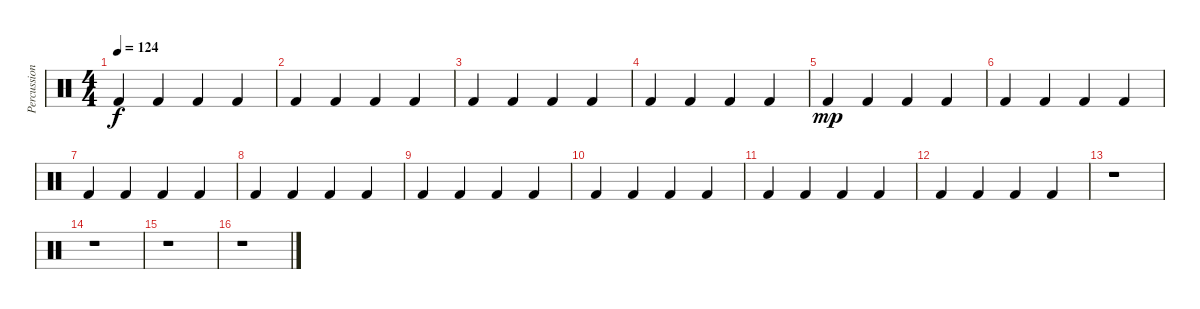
\track ("Percussion" "Percussion") {instrument percussion}
\staff {score}
\articulation defaults
\ts (4 4)
\tempo 124
\clef neutral
\ks c "Kick (hit) 2".4{dy f} "Kick (hit) 2".4 "Kick (hit) 2".4 "Kick (hit) 2".4
|
"Kick (hit) 2".4 "Kick (hit) 2".4 "Kick (hit) 2".4 "Kick (hit) 2".4 |
"Kick (hit) 2".4 "Kick (hit) 2".4 "Kick (hit) 2".4 "Kick (hit) 2".4 |
"Kick (hit) 2".4 "Kick (hit) 2".4 "Kick (hit) 2".4 "Kick (hit) 2".4 |
"Kick (hit) 2".4{dy mp} "Kick (hit) 2".4 "Kick (hit) 2".4 "Kick (hit) 2".4 |
"Kick (hit) 2".4 "Kick (hit) 2".4 "Kick (hit) 2".4 "Kick (hit) 2".4 |
"Kick (hit) 2".4 "Kick (hit) 2".4 "Kick (hit) 2".4 "Kick (hit) 2".4 |
"Kick (hit) 2".4 "Kick (hit) 2".4 "Kick (hit) 2".4 "Kick (hit) 2".4 |
"Kick (hit) 2".4 "Kick (hit) 2".4 "Kick (hit) 2".4 "Kick (hit) 2".4 |
"Kick (hit) 2".4 "Kick (hit) 2".4 "Kick (hit) 2".4 "Kick (hit) 2".4 |
"Kick (hit) 2".4 "Kick (hit) 2".4 "Kick (hit) 2".4 "Kick (hit) 2".4 |
"Kick (hit) 2".4 "Kick (hit) 2".4 "Kick (hit) 2".4 "Kick (hit) 2".4 |
r.1 |
r.1 |
r.1 |
r.1
